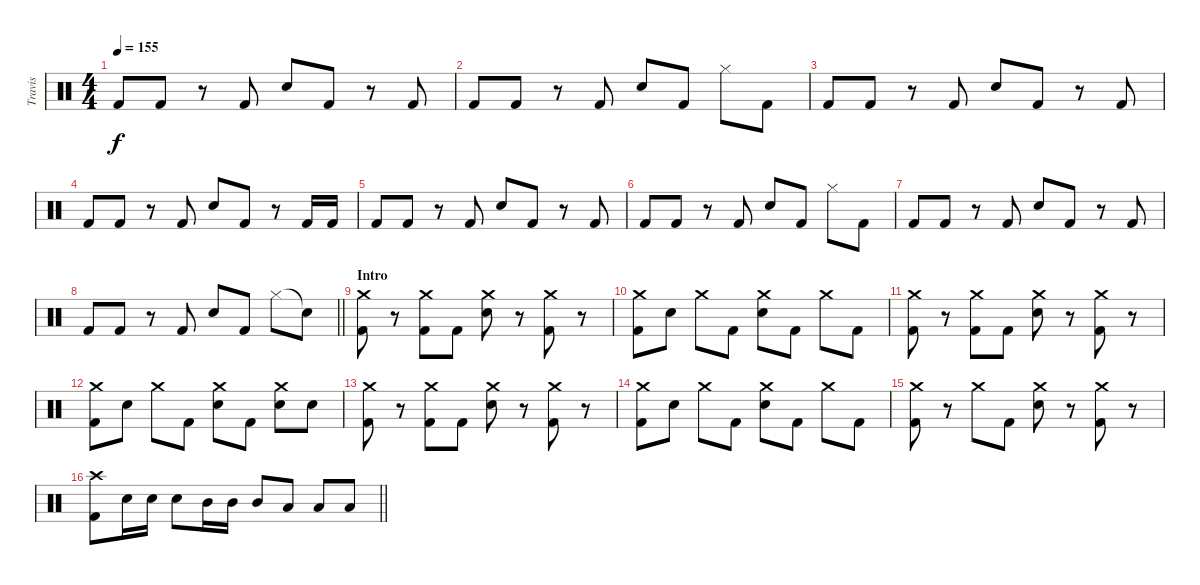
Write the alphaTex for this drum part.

\track ("Travis" "Travis") {instrument percussion}
\staff {score}
\articulation defaults
\ts (4 4)
\tempo 155
\clef neutral
\ks c "Kick (hit) 2".8{dy f volume 13} "Kick (hit) 2".8
r.8 "Kick (hit) 2".8 "Electric Snare (hit)".8 "Kick (hit) 2".8 r.8 "Kick (hit) 2".8 |
"Kick (hit) 2".8 "Kick (hit) 2".8 r.8 "Kick (hit) 2".8 "Electric Snare (hit)".8 "Kick (hit) 2".8 "Hi-Hat (closed)".8 "Kick (hit) 2".8 |
"Kick (hit) 2".8 "Kick (hit) 2".8 r.8 "Kick (hit) 2".8 "Electric Snare (hit)".8 "Kick (hit) 2".8 r.8 "Kick (hit) 2".8 |
"Kick (hit) 2".8 "Kick (hit) 2".8 r.8 "Kick (hit) 2".8 "Electric Snare (hit)".8 "Kick (hit) 2".8 r.8 "Kick (hit) 2".16 "Kick (hit) 2".16 |
"Kick (hit) 2".8 "Kick (hit) 2".8 r.8 "Kick (hit) 2".8 "Electric Snare (hit)".8 "Kick (hit) 2".8 r.8 "Kick (hit) 2".8 |
"Kick (hit) 2".8 "Kick (hit) 2".8 r.8 "Kick (hit) 2".8 "Electric Snare (hit)".8 "Kick (hit) 2".8 "Hi-Hat (closed)".8 "Kick (hit) 2".8 |
"Kick (hit) 2".8 "Kick (hit) 2".8 r.8 "Kick (hit) 2".8 "Electric Snare (hit)".8 "Kick (hit) 2".8 r.8 "Kick (hit) 2".8 |
\barLineRight lightlight "Kick (hit) 2".8 "Kick (hit) 2".8
r.8 "Kick (hit) 2".8 "Electric Snare (hit)".8 "Kick (hit) 2".8 "Hi-Hat (closed)".8 "Snare (hit)"{t}.8 |
\section ("" "Intro")
("Crash medium (hit)" "Kick (hit) 2").8 r.8 ("Crash medium (hit)" "Kick (hit) 2").8 "Kick (hit) 2".8 ("Crash medium (hit)" "Electric Snare (hit)").8 r.8 ("Crash medium (hit)" "Kick (hit) 2").8 r.8 |
("Crash medium (hit)" "Kick (hit) 2").8 "Electric Snare (hit)".8 "Crash medium (hit)".8 "Kick (hit) 2".8 ("Crash medium (hit)" "Electric Snare (hit)").8 "Kick (hit) 2".8 "Crash medium (hit)".8 "Kick (hit) 2".8 |
("Crash medium (hit)" "Kick (hit) 2").8 r.8 ("Crash medium (hit)" "Kick (hit) 2").8 "Kick (hit) 2".8 ("Crash medium (hit)" "Electric Snare (hit)").8 r.8 ("Crash medium (hit)" "Kick (hit) 2").8 r.8 |
("Crash medium (hit)" "Kick (hit) 2").8 "Electric Snare (hit)".8 "Crash medium (hit)".8 "Kick (hit) 2".8 ("Crash medium (hit)" "Electric Snare (hit)").8 "Kick (hit) 2".8 ("Crash medium (hit)" "Electric Snare (hit)").8 "Electric Snare (hit)".8 |
("Crash medium (hit)" "Kick (hit) 2").8 r.8 ("Crash medium (hit)" "Kick (hit) 2").8 "Kick (hit) 2".8 ("Crash medium (hit)" "Electric Snare (hit)").8 r.8 ("Crash medium (hit)" "Kick (hit) 2").8 r.8 |
("Crash medium (hit)" "Kick (hit) 2").8 "Electric Snare (hit)".8 "Crash medium (hit)".8 "Kick (hit) 2".8 ("Crash medium (hit)" "Electric Snare (hit)").8 "Kick (hit) 2".8 "Crash medium (hit)".8 "Kick (hit) 2".8 |
("Crash medium (hit)" "Kick (hit) 2").8 r.8 "Crash medium (hit)".8 "Kick (hit) 2".8 ("Crash medium (hit)" "Electric Snare (hit)").8 r.8 ("Crash medium (hit)" "Kick (hit) 2").8 r.8 |
\barLineRight lightlight
("Crash high (hit)" "Kick (hit) 2").8 "Electric Snare (hit)".16 "Electric Snare (hit)".16 "Electric Snare (hit)".8 "Mid Tom (hit)".16 "Mid Tom (hit)".16 "Mid Tom (hit)".8 "Low Tom (hit)".8 "Low Tom (hit)".8 "Low Tom (hit)".8
